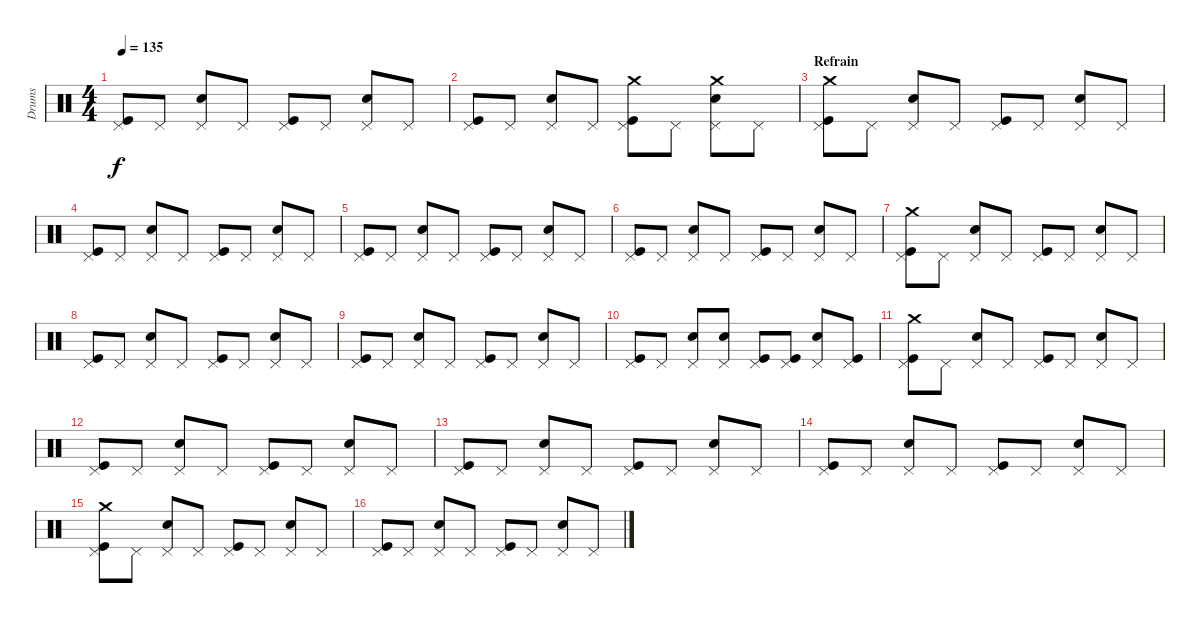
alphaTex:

\track ("Drums" "Drums") {instrument percussion}
\staff {score}
\articulation defaults
\ts (4 4)
\tempo 135
\clef neutral
\ks c
("Pedal Hi-Hat (hit)" "Kick (hit)").8{dy f} "Pedal Hi-Hat (hit)".8 ("Pedal Hi-Hat (hit)" "Electric Snare (hit)").8 "Pedal Hi-Hat (hit)".8 ("Pedal Hi-Hat (hit)" "Kick (hit)").8 "Pedal Hi-Hat (hit)".8 ("Pedal Hi-Hat (hit)" "Electric Snare (hit)").8 "Pedal Hi-Hat (hit)".8 |
("Pedal Hi-Hat (hit)" "Kick (hit)").8 "Pedal Hi-Hat (hit)".8 ("Pedal Hi-Hat (hit)" "Electric Snare (hit)").8 "Pedal Hi-Hat (hit)".8 ("Pedal Hi-Hat (hit)" "Kick (hit)" "Crash medium (hit)").8 "Pedal Hi-Hat (hit)".8 ("Pedal Hi-Hat (hit)" "Electric Snare (hit)" "Crash medium (hit)").8 "Pedal Hi-Hat (hit)".8 |
\section ("" "Refrain")
("Pedal Hi-Hat (hit)" "Kick (hit)" "Crash medium (hit)").8 "Pedal Hi-Hat (hit)".8 ("Pedal Hi-Hat (hit)" "Electric Snare (hit)").8 "Pedal Hi-Hat (hit)".8 ("Pedal Hi-Hat (hit)" "Kick (hit)").8 "Pedal Hi-Hat (hit)".8 ("Pedal Hi-Hat (hit)" "Electric Snare (hit)").8 "Pedal Hi-Hat (hit)".8 |
("Pedal Hi-Hat (hit)" "Kick (hit)").8 "Pedal Hi-Hat (hit)".8 ("Pedal Hi-Hat (hit)" "Electric Snare (hit)").8 "Pedal Hi-Hat (hit)".8 ("Pedal Hi-Hat (hit)" "Kick (hit)").8 "Pedal Hi-Hat (hit)".8 ("Pedal Hi-Hat (hit)" "Electric Snare (hit)").8 "Pedal Hi-Hat (hit)".8 |
("Pedal Hi-Hat (hit)" "Kick (hit)").8 "Pedal Hi-Hat (hit)".8 ("Pedal Hi-Hat (hit)" "Electric Snare (hit)").8 "Pedal Hi-Hat (hit)".8 ("Pedal Hi-Hat (hit)" "Kick (hit)").8 "Pedal Hi-Hat (hit)".8 ("Pedal Hi-Hat (hit)" "Electric Snare (hit)").8 "Pedal Hi-Hat (hit)".8 |
("Pedal Hi-Hat (hit)" "Kick (hit)").8 "Pedal Hi-Hat (hit)".8 ("Pedal Hi-Hat (hit)" "Electric Snare (hit)").8 "Pedal Hi-Hat (hit)".8 ("Pedal Hi-Hat (hit)" "Kick (hit)").8 "Pedal Hi-Hat (hit)".8 ("Pedal Hi-Hat (hit)" "Electric Snare (hit)").8 "Pedal Hi-Hat (hit)".8 |
("Pedal Hi-Hat (hit)" "Kick (hit)" "Crash medium (hit)").8 "Pedal Hi-Hat (hit)".8 ("Pedal Hi-Hat (hit)" "Electric Snare (hit)").8 "Pedal Hi-Hat (hit)".8 ("Pedal Hi-Hat (hit)" "Kick (hit)").8 "Pedal Hi-Hat (hit)".8 ("Pedal Hi-Hat (hit)" "Electric Snare (hit)").8 "Pedal Hi-Hat (hit)".8 |
("Pedal Hi-Hat (hit)" "Kick (hit)").8 "Pedal Hi-Hat (hit)".8 ("Pedal Hi-Hat (hit)" "Electric Snare (hit)").8 "Pedal Hi-Hat (hit)".8 ("Pedal Hi-Hat (hit)" "Kick (hit)").8 "Pedal Hi-Hat (hit)".8 ("Pedal Hi-Hat (hit)" "Electric Snare (hit)").8 "Pedal Hi-Hat (hit)".8 |
("Pedal Hi-Hat (hit)" "Kick (hit)").8 "Pedal Hi-Hat (hit)".8 ("Pedal Hi-Hat (hit)" "Electric Snare (hit)").8 "Pedal Hi-Hat (hit)".8 ("Pedal Hi-Hat (hit)" "Kick (hit)").8 "Pedal Hi-Hat (hit)".8 ("Pedal Hi-Hat (hit)" "Electric Snare (hit)").8 "Pedal Hi-Hat (hit)".8 |
("Pedal Hi-Hat (hit)" "Kick (hit)").8 "Pedal Hi-Hat (hit)".8 ("Pedal Hi-Hat (hit)" "Electric Snare (hit)").8 ("Pedal Hi-Hat (hit)" "Electric Snare (hit)").8 ("Pedal Hi-Hat (hit)" "Kick (hit)").8 ("Pedal Hi-Hat (hit)" "Kick (hit)").8 ("Pedal Hi-Hat (hit)" "Electric Snare (hit)").8 ("Pedal Hi-Hat (hit)" "Kick (hit)").8 |
("Pedal Hi-Hat (hit)" "Kick (hit)" "Crash medium (hit)").8 "Pedal Hi-Hat (hit)".8 ("Pedal Hi-Hat (hit)" "Electric Snare (hit)").8 "Pedal Hi-Hat (hit)".8 ("Pedal Hi-Hat (hit)" "Kick (hit)").8 "Pedal Hi-Hat (hit)".8 ("Pedal Hi-Hat (hit)" "Electric Snare (hit)").8 "Pedal Hi-Hat (hit)".8 |
("Pedal Hi-Hat (hit)" "Kick (hit)").8 "Pedal Hi-Hat (hit)".8 ("Pedal Hi-Hat (hit)" "Electric Snare (hit)").8 "Pedal Hi-Hat (hit)".8 ("Pedal Hi-Hat (hit)" "Kick (hit)").8 "Pedal Hi-Hat (hit)".8 ("Pedal Hi-Hat (hit)" "Electric Snare (hit)").8 "Pedal Hi-Hat (hit)".8 |
("Pedal Hi-Hat (hit)" "Kick (hit)").8 "Pedal Hi-Hat (hit)".8 ("Pedal Hi-Hat (hit)" "Electric Snare (hit)").8 "Pedal Hi-Hat (hit)".8 ("Pedal Hi-Hat (hit)" "Kick (hit)").8 "Pedal Hi-Hat (hit)".8 ("Pedal Hi-Hat (hit)" "Electric Snare (hit)").8 "Pedal Hi-Hat (hit)".8 |
("Pedal Hi-Hat (hit)" "Kick (hit)").8 "Pedal Hi-Hat (hit)".8 ("Pedal Hi-Hat (hit)" "Electric Snare (hit)").8 "Pedal Hi-Hat (hit)".8 ("Pedal Hi-Hat (hit)" "Kick (hit)").8 "Pedal Hi-Hat (hit)".8 ("Pedal Hi-Hat (hit)" "Electric Snare (hit)").8 "Pedal Hi-Hat (hit)".8 |
("Pedal Hi-Hat (hit)" "Kick (hit)" "Crash medium (hit)").8 "Pedal Hi-Hat (hit)".8 ("Pedal Hi-Hat (hit)" "Electric Snare (hit)").8 "Pedal Hi-Hat (hit)".8 ("Pedal Hi-Hat (hit)" "Kick (hit)").8 "Pedal Hi-Hat (hit)".8 ("Pedal Hi-Hat (hit)" "Electric Snare (hit)").8 "Pedal Hi-Hat (hit)".8 |
("Pedal Hi-Hat (hit)" "Kick (hit)").8 "Pedal Hi-Hat (hit)".8 ("Pedal Hi-Hat (hit)" "Electric Snare (hit)").8 "Pedal Hi-Hat (hit)".8 ("Pedal Hi-Hat (hit)" "Kick (hit)").8 "Pedal Hi-Hat (hit)".8 ("Pedal Hi-Hat (hit)" "Electric Snare (hit)").8 "Pedal Hi-Hat (hit)".8
